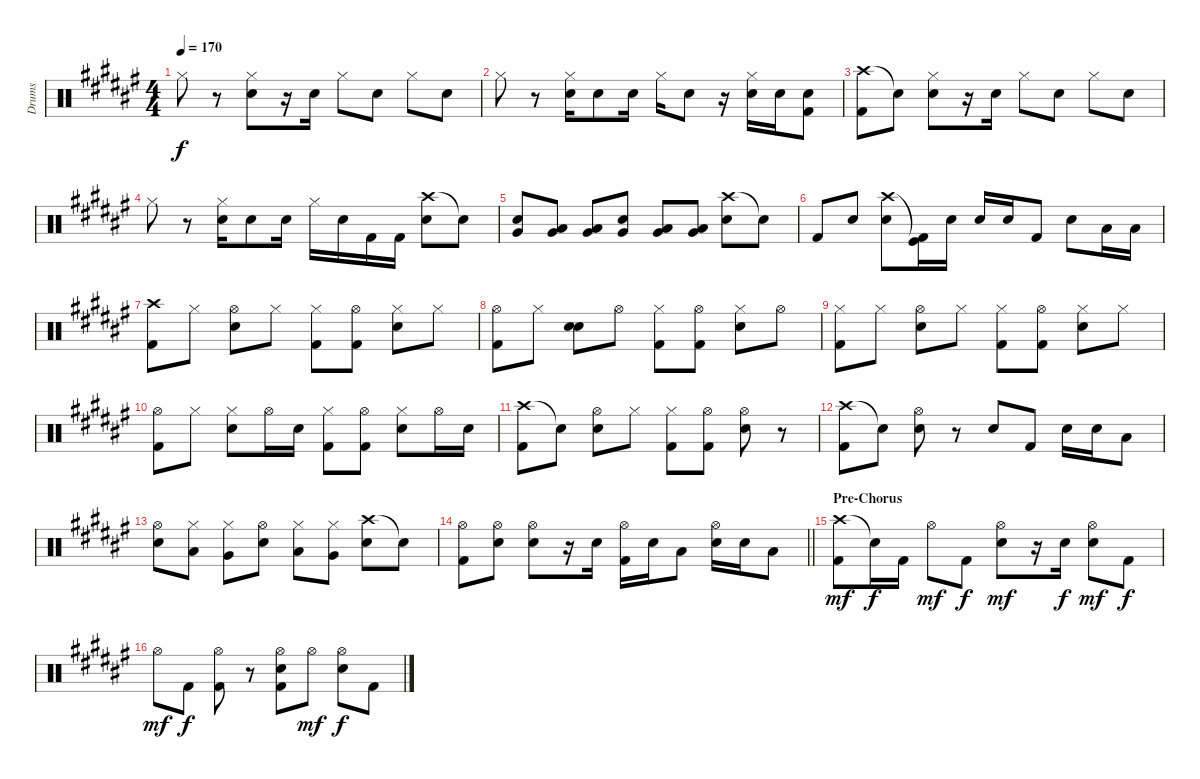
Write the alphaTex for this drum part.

\track ("Drums" "Drums") {instrument percussion}
\staff {score}
\articulation defaults
\ts (4 4)
\tempo 170
\clef neutral
\ks f# "Hi-Hat (closed)".8{dy f}
r.8 ("Hi-Hat (closed)" "Snare (hit) 2").8 r.16 "Snare (hit) 2".16 "Hi-Hat (closed)".8 "Snare (hit) 2".8 "Hi-Hat (closed)".8 "Snare (hit) 2".8 |
"Hi-Hat (closed)".8 r.8 ("Hi-Hat (closed)" "Snare (hit) 2").16 "Snare (hit) 2".8 "Snare (hit) 2".16 "Hi-Hat (closed)".16 "Snare (hit) 2".8 r.16 ("Hi-Hat (closed)" "Snare (hit) 2").16 "Snare (hit) 2".16 ("Snare (hit) 2" "Kick (hit) 2").8 |
("Crash high (hit)" "Kick (hit) 2").8 "Snare (hit)"{t}.8 ("Hi-Hat (closed)" "Snare (hit) 2").8 r.16 "Snare (hit) 2".16 "Hi-Hat (closed)".8 "Snare (hit) 2".8 "Hi-Hat (closed)".8 "Snare (hit) 2".8 |
"Hi-Hat (closed)".8 r.8 ("Hi-Hat (closed)" "Snare (hit) 2").16 "Snare (hit) 2".8 "Snare (hit) 2".16 "Hi-Hat (closed)".16 "Snare (hit) 2".16 "Kick (hit) 2".16 "Kick (hit) 2".16 ("Crash high (hit)" "Snare (hit) 2").8 "Snare (hit)"{t}.8 |
("Snare (hit) 2" "Very Low Tom (hit)").8 ("Low Tom (hit)" "Very Low Tom (hit)").8 ("Low Tom (hit)" "Very Low Tom (hit)").8 ("Snare (hit) 2" "Very Low Tom (hit)").8 ("Low Tom (hit)" "Very Low Tom (hit)").8 ("Low Tom (hit)" "Very Low Tom (hit)").8 ("Crash high (hit)" "Snare (hit) 2").8 "Snare (hit)"{t}.8 |
"Kick (hit) 2".8 "Snare (hit) 2".8 ("Crash high (hit)" "Snare (hit) 2").8 ("Kick (hit)"{t} "Kick (hit) 2").16 "Snare (hit) 2".16 "Snare (hit) 2".16 "Snare (hit) 2".16 "Kick (hit) 2".8 "Snare (hit) 2".8 "Low Tom (hit)".16 "Low Tom (hit)".16 |
("Crash high (hit)" "Kick (hit) 2").8 "Hi-Hat (closed)".8 ("Hi-Hat (open)" "Snare (hit) 2").8 "Hi-Hat (closed)".8 ("Hi-Hat (closed)" "Kick (hit) 2").8 ("Hi-Hat (open)" "Kick (hit) 2").8 ("Hi-Hat (closed)" "Snare (hit) 2").8 "Hi-Hat (closed)".8 |
("Hi-Hat (open)" "Kick (hit) 2").8 "Hi-Hat (closed)".8 ("Snare (hit) 2" "Snare (hit) 2").8 "Hi-Hat (open)".8 ("Hi-Hat (closed)" "Kick (hit) 2").8 ("Hi-Hat (open)" "Kick (hit) 2").8 ("Hi-Hat (closed)" "Snare (hit) 2").8 "Hi-Hat (open)".8 |
("Hi-Hat (closed)" "Kick (hit) 2").8 "Hi-Hat (closed)".8 ("Hi-Hat (open)" "Snare (hit) 2").8 "Hi-Hat (closed)".8 ("Hi-Hat (closed)" "Kick (hit) 2").8 ("Hi-Hat (open)" "Kick (hit) 2").8 ("Hi-Hat (closed)" "Snare (hit) 2").8 "Hi-Hat (closed)".8 |
("Hi-Hat (open)" "Kick (hit) 2").8 "Hi-Hat (closed)".8 ("Hi-Hat (closed)" "Snare (hit) 2").8 "Hi-Hat (open)".16 "Snare (hit) 2".16 ("Hi-Hat (closed)" "Kick (hit) 2").8 ("Hi-Hat (open)" "Kick (hit) 2").8 ("Hi-Hat (closed)" "Snare (hit) 2").8 "Hi-Hat (open)".16 "Snare (hit) 2".16 |
("Crash high (hit)" "Kick (hit) 2").8 "Snare (hit)"{t}.8 ("Hi-Hat (open)" "Snare (hit) 2").8 "Hi-Hat (closed)".8 ("Hi-Hat (closed)" "Kick (hit) 2").8 ("Hi-Hat (open)" "Kick (hit) 2").8 ("Hi-Hat (open)" "Snare (hit) 2").8 r.8 |
("Crash high (hit)" "Kick (hit) 2").8 "Snare (hit)"{t}.8 ("Hi-Hat (open)" "Snare (hit) 2").8 r.8 "Snare (hit) 2".8 "Kick (hit) 2".8 "Snare (hit) 2".16 "Snare (hit) 2".16 "Low Tom (hit)".8 |
("Hi-Hat (open)" "Snare (hit) 2").8 ("Hi-Hat (closed)" "Low Tom (hit)").8 ("Hi-Hat (closed)" "Very Low Tom (hit)").8 ("Hi-Hat (open)" "Snare (hit) 2").8 ("Hi-Hat (closed)" "Low Tom (hit)").8 ("Hi-Hat (closed)" "Very Low Tom (hit)").8 ("Crash high (hit)" "Snare (hit) 2").8 "Snare (hit)"{t}.8 |
\barLineRight lightlight
("Hi-Hat (open)" "Kick (hit) 2").8 ("Hi-Hat (open)" "Snare (hit) 2").8 ("Hi-Hat (open)" "Snare (hit) 2").8 r.16 "Snare (hit) 2".16 ("Hi-Hat (open)" "Kick (hit) 2").16 "Snare (hit) 2".16 "Low Tom (hit)".8 ("Hi-Hat (open)" "Snare (hit) 2").16 "Snare (hit) 2".16 "Low Tom (hit)".8 |
\section ("" "Pre-Chorus")
("Crash high (hit)" "Kick (hit) 2").8{dy mf} "Snare (hit)"{t}.16{dy f} "Kick (hit) 2".16 "Hi-Hat (open)".8{dy mf} "Kick (hit) 2".8{dy f} ("Hi-Hat (open)" "Snare (hit) 2").8{dy mf} r.16 "Snare (hit) 2".16{dy f} ("Hi-Hat (open)" "Snare (hit) 2").8{dy mf} "Kick (hit) 2".8{dy f} |
"Hi-Hat (open)".8{dy mf} "Kick (hit) 2".8{dy f} ("Hi-Hat (open)" "Kick (hit) 2").8 r.8 ("Hi-Hat (open)" "Snare (hit) 2" "Kick (hit) 2").8 "Hi-Hat (open)".8{dy mf} ("Hi-Hat (open)" "Snare (hit) 2").8{dy f} "Kick (hit) 2".8
